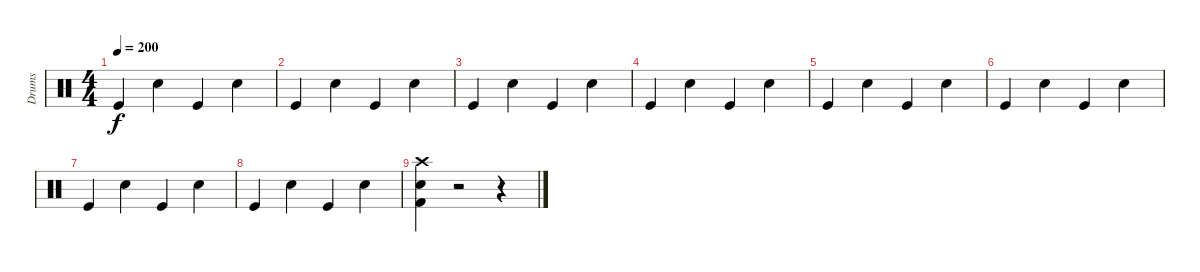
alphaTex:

\track ("Drums" "Drums") {instrument percussion}
\staff {score}
\articulation defaults
\ts (4 4)
\tempo 200
\clef neutral
\ks c "Kick (hit)".4{dy f} "Snare (hit) 2".4 "Kick (hit)".4 "Snare (hit) 2".4
|
"Kick (hit)".4 "Snare (hit) 2".4 "Kick (hit)".4 "Snare (hit) 2".4 |
"Kick (hit)".4 "Snare (hit) 2".4 "Kick (hit)".4 "Snare (hit) 2".4 |
"Kick (hit)".4 "Snare (hit) 2".4 "Kick (hit)".4 "Snare (hit) 2".4 |
"Kick (hit)".4 "Snare (hit) 2".4 "Kick (hit)".4 "Snare (hit) 2".4 |
"Kick (hit)".4 "Snare (hit) 2".4 "Kick (hit)".4 "Snare (hit) 2".4 |
"Kick (hit)".4 "Snare (hit) 2".4 "Kick (hit)".4 "Snare (hit) 2".4 |
"Kick (hit)".4 "Snare (hit) 2".4 "Kick (hit)".4 "Snare (hit) 2".4 |
("Kick (hit) 2" "Snare (hit) 2" "Crash high (hit)").4 r.2 r.4
